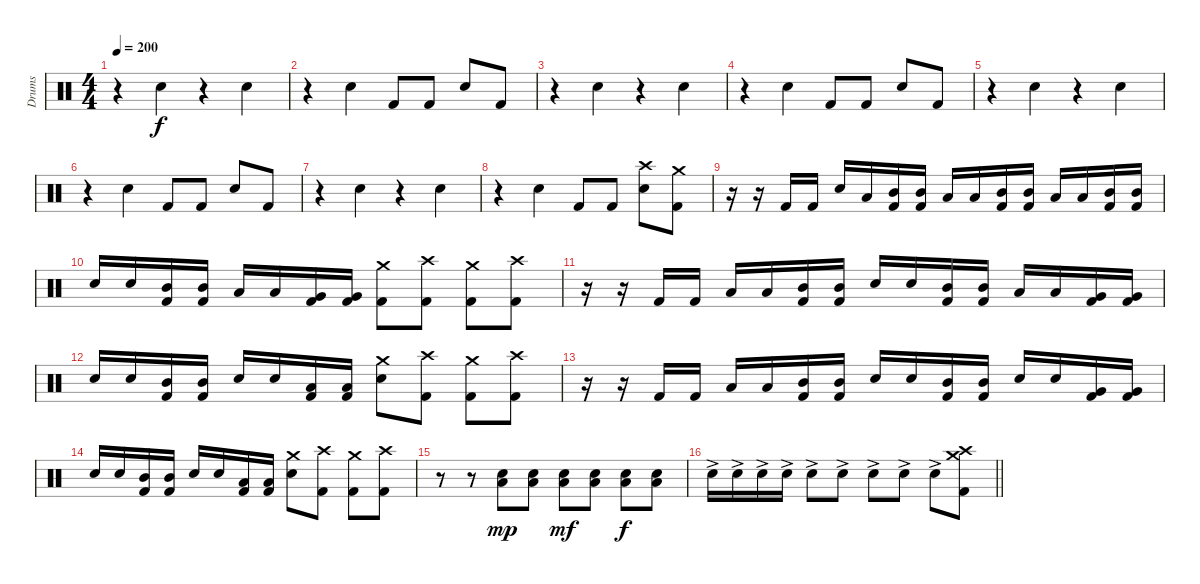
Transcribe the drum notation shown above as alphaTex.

\track ("Drums" "Drums") {instrument percussion}
\staff {score}
\articulation defaults
\ts (4 4)
\tempo 200
\clef neutral
\ks c
r.4{dy f} "Electric Snare (hit)".4 r.4 "Electric Snare (hit)".4 |
r.4 "Electric Snare (hit)".4 "Kick (hit) 2".8 "Kick (hit) 2".8 "Electric Snare (hit)".8 "Kick (hit) 2".8 |
r.4 "Electric Snare (hit)".4 r.4 "Electric Snare (hit)".4 |
r.4 "Electric Snare (hit)".4 "Kick (hit) 2".8 "Kick (hit) 2".8 "Electric Snare (hit)".8 "Kick (hit) 2".8 |
r.4 "Electric Snare (hit)".4 r.4 "Electric Snare (hit)".4 |
r.4 "Electric Snare (hit)".4 "Kick (hit) 2".8 "Kick (hit) 2".8 "Electric Snare (hit)".8 "Kick (hit) 2".8 |
r.4 "Electric Snare (hit)".4 r.4 "Electric Snare (hit)".4 |
r.4 "Electric Snare (hit)".4 "Kick (hit) 2".8 "Kick (hit) 2".8 ("Crash high (hit)" "Electric Snare (hit)").8 ("Crash medium (hit)" "Kick (hit) 2").8 |
r.16 r.16 "Kick (hit) 2".16 "Kick (hit) 2".16 "Electric Snare (hit)".16 "Low Tom (hit)".16 ("Mid Tom (hit)" "Kick (hit) 2").16 ("Mid Tom (hit)" "Kick (hit) 2").16 "Low Tom (hit)".16 "Low Tom (hit)".16 ("Mid Tom (hit)" "Kick (hit) 2").16 ("Mid Tom (hit)" "Kick (hit) 2").16 "Low Tom (hit)".16 "Low Tom (hit)".16 ("Mid Tom (hit)" "Kick (hit) 2").16 ("Mid Tom (hit)" "Kick (hit) 2").16 |
"Electric Snare (hit)".16 "Electric Snare (hit)".16 ("Mid Tom (hit)" "Kick (hit) 2").16 ("Mid Tom (hit)" "Kick (hit) 2").16 "Low Tom (hit)".16 "Low Tom (hit)".16 ("Very Low Tom (hit)" "Kick (hit) 2").16 ("Very Low Tom (hit)" "Kick (hit) 2").16 ("Crash medium (hit)" "Kick (hit) 2").8 ("Crash high (hit)" "Kick (hit) 2").8 ("Crash medium (hit)" "Kick (hit) 2").8 ("Crash high (hit)" "Kick (hit) 2").8 |
r.16 r.16 "Kick (hit) 2".16 "Kick (hit) 2".16 "Low Tom (hit)".16 "Low Tom (hit)".16 ("Mid Tom (hit)" "Kick (hit) 2").16 ("Mid Tom (hit)" "Kick (hit) 2").16 "Electric Snare (hit)".16 "Electric Snare (hit)".16 ("Mid Tom (hit)" "Kick (hit) 2").16 ("Mid Tom (hit)" "Kick (hit) 2").16 "Low Tom (hit)".16 "Low Tom (hit)".16 ("Very Low Tom (hit)" "Kick (hit) 2").16 ("Very Low Tom (hit)" "Kick (hit) 2").16 |
"Electric Snare (hit)".16 "Electric Snare (hit)".16 ("Mid Tom (hit)" "Kick (hit) 2").16 ("Mid Tom (hit)" "Kick (hit) 2").16 "Electric Snare (hit)".16 "Electric Snare (hit)".16 ("Low Tom (hit)" "Kick (hit) 2").16 ("Low Tom (hit)" "Kick (hit) 2").16 ("Crash medium (hit)" "Electric Snare (hit)").8 ("Crash high (hit)" "Kick (hit) 2").8 ("Crash medium (hit)" "Kick (hit) 2").8 ("Crash high (hit)" "Kick (hit) 2").8 |
r.16 r.16 "Kick (hit) 2".16 "Kick (hit) 2".16 "Low Tom (hit)".16 "Low Tom (hit)".16 ("Mid Tom (hit)" "Kick (hit) 2").16 ("Mid Tom (hit)" "Kick (hit) 2").16 "Electric Snare (hit)".16 "Electric Snare (hit)".16 ("Mid Tom (hit)" "Kick (hit) 2").16 ("Mid Tom (hit)" "Kick (hit) 2").16 "Electric Snare (hit)".16 "Electric Snare (hit)".16 ("Very Low Tom (hit)" "Kick (hit) 2").16 ("Very Low Tom (hit)" "Kick (hit) 2").16 |
"Electric Snare (hit)".16 "Electric Snare (hit)".16 ("Mid Tom (hit)" "Kick (hit) 2").16 ("Mid Tom (hit)" "Kick (hit) 2").16 "Electric Snare (hit)".16 "Electric Snare (hit)".16 ("Low Tom (hit)" "Kick (hit) 2").16 ("Low Tom (hit)" "Kick (hit) 2").16 ("Crash medium (hit)" "Electric Snare (hit)").8 ("Crash high (hit)" "Kick (hit) 2").8 ("Crash medium (hit)" "Kick (hit) 2").8 ("Crash high (hit)" "Kick (hit) 2").8 |
r.8 r.8 ("Low Tom (hit)" "Electric Snare (hit)").8{dy mp} ("Low Tom (hit)" "Electric Snare (hit)").8 ("Low Tom (hit)" "Electric Snare (hit)").8{dy mf} ("Low Tom (hit)" "Electric Snare (hit)").8 ("Low Tom (hit)" "Electric Snare (hit)").8{dy f} ("Low Tom (hit)" "Electric Snare (hit)").8 |
\barLineRight lightlight "Electric Snare (hit)"{ac}.16 "Electric Snare (hit)"{ac}.16 "Electric Snare (hit)"{ac}.16 "Electric Snare (hit)"{ac}.16 "Electric Snare (hit)"{ac}.8 "Electric Snare (hit)"{ac}.8 "Electric Snare (hit)"{ac}.8 "Electric Snare (hit)"{ac}.8 "Electric Snare (hit)"{ac}.8
("Crash high (hit)" "Crash medium (hit)" "Kick (hit) 2").8
